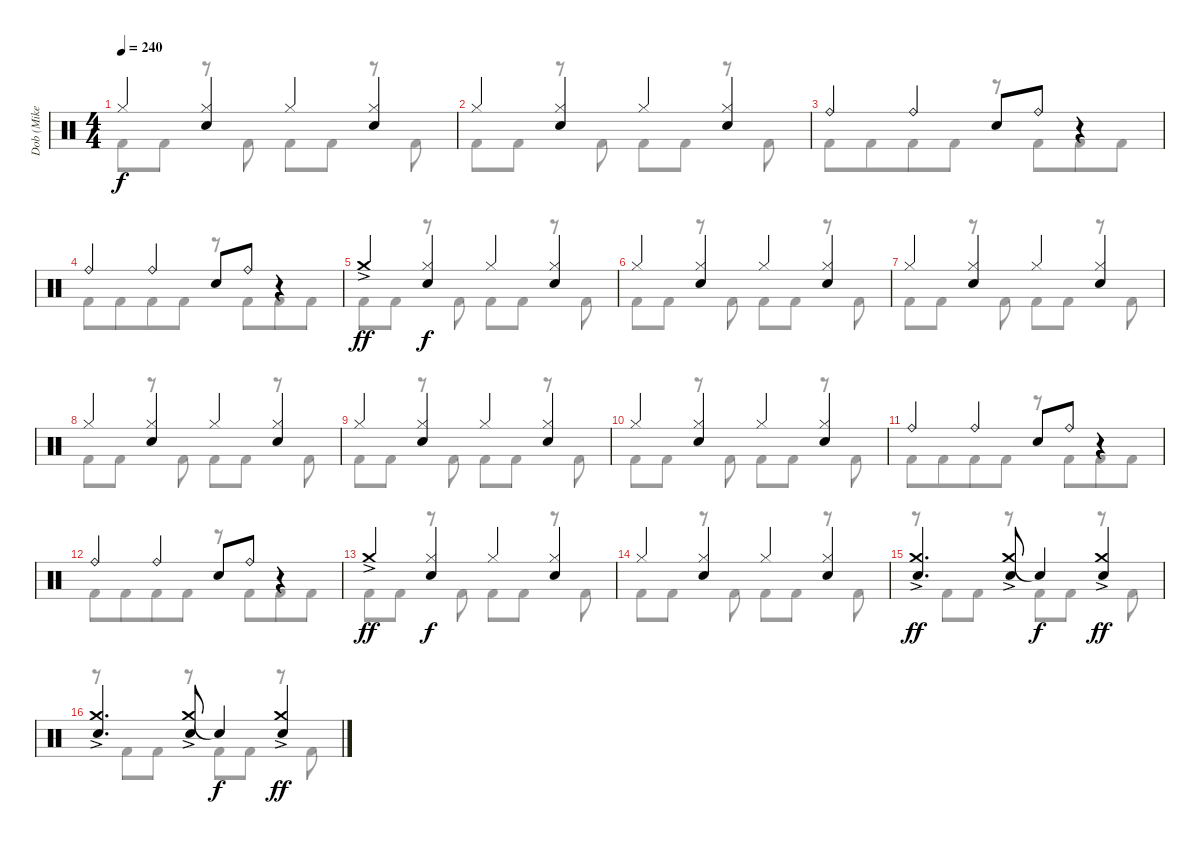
\track ("Dob (Mike Terrana)" "Dob (Mike ") {instrument percussion}
\staff {score}
\articulation defaults
\voice
\ts (4 4)
\tempo 240
\clef neutral
\ks c "Hi-Hat (closed)".4{dy f}
("Hi-Hat (closed)" "Electric Snare (hit)").4 "Hi-Hat (closed)".4 ("Hi-Hat (closed)" "Electric Snare (hit)").4 |
"Hi-Hat (closed)".4 ("Hi-Hat (closed)" "Electric Snare (hit)").4 "Hi-Hat (closed)".4 ("Hi-Hat (closed)" "Electric Snare (hit)").4 |
"Ride (bell)".4 "Ride (bell)".4 "Electric Snare (hit)".8 "Ride (bell)".8 r.4 |
"Ride (bell)".4 "Ride (bell)".4 "Electric Snare (hit)".8 "Ride (bell)".8 r.4 |
"Crash medium (hit)"{ac}.4{dy ff} ("Hi-Hat (closed)" "Electric Snare (hit)").4{dy f} "Hi-Hat (closed)".4 ("Hi-Hat (closed)" "Electric Snare (hit)").4 |
"Hi-Hat (closed)".4 ("Hi-Hat (closed)" "Electric Snare (hit)").4 "Hi-Hat (closed)".4 ("Hi-Hat (closed)" "Electric Snare (hit)").4 |
"Hi-Hat (closed)".4 ("Hi-Hat (closed)" "Electric Snare (hit)").4 "Hi-Hat (closed)".4 ("Hi-Hat (closed)" "Electric Snare (hit)").4 |
"Hi-Hat (closed)".4 ("Hi-Hat (closed)" "Electric Snare (hit)").4 "Hi-Hat (closed)".4 ("Hi-Hat (closed)" "Electric Snare (hit)").4 |
"Hi-Hat (closed)".4 ("Hi-Hat (closed)" "Electric Snare (hit)").4 "Hi-Hat (closed)".4 ("Hi-Hat (closed)" "Electric Snare (hit)").4 |
"Hi-Hat (closed)".4 ("Hi-Hat (closed)" "Electric Snare (hit)").4 "Hi-Hat (closed)".4 ("Hi-Hat (closed)" "Electric Snare (hit)").4 |
"Ride (bell)".4 "Ride (bell)".4 "Electric Snare (hit)".8 "Ride (bell)".8 r.4 |
"Ride (bell)".4 "Ride (bell)".4 "Electric Snare (hit)".8 "Ride (bell)".8 r.4 |
"Crash medium (hit)"{ac}.4{dy ff} ("Hi-Hat (closed)" "Electric Snare (hit)").4{dy f} "Hi-Hat (closed)".4 ("Hi-Hat (closed)" "Electric Snare (hit)").4 |
"Hi-Hat (closed)".4 ("Hi-Hat (closed)" "Electric Snare (hit)").4 "Hi-Hat (closed)".4 ("Hi-Hat (closed)" "Electric Snare (hit)").4 |
("Crash medium (hit)"{ac} "Electric Snare (hit)").4{d dy ff} ("Crash medium (hit)"{ac} "Electric Snare (hit)").8 "Snare (hit)"{t}.4{dy f} ("Crash medium (hit)"{ac} "Electric Snare (hit)").4{dy ff} |
("Crash medium (hit)"{ac} "Electric Snare (hit)").4{d} ("Crash medium (hit)"{ac} "Electric Snare (hit)").8 "Snare (hit)"{t}.4{dy f} ("Crash medium (hit)"{ac} "Electric Snare (hit)").4{dy ff}
\voice
\clef neutral
\ottava regular
\simile none
\ks c "Kick (hit) 2".8{dy f} "Kick (hit) 2".8
r.8 "Kick (hit) 2".8 "Kick (hit) 2".8 "Kick (hit) 2".8 r.8 "Kick (hit) 2".8 |
"Kick (hit) 2".8 "Kick (hit) 2".8 r.8 "Kick (hit) 2".8 "Kick (hit) 2".8 "Kick (hit) 2".8 r.8 "Kick (hit) 2".8 |
"Kick (hit) 2".8 "Kick (hit) 2".8{beam merge} "Kick (hit) 2".8 "Kick (hit) 2".8 r.8 "Kick (hit) 2".8{beam merge} "Kick (hit) 2".8 "Kick (hit) 2".8 |
"Kick (hit) 2".8 "Kick (hit) 2".8{beam merge} "Kick (hit) 2".8 "Kick (hit) 2".8 r.8 "Kick (hit) 2".8{beam merge} "Kick (hit) 2".8 "Kick (hit) 2".8 |
"Kick (hit) 2".8 "Kick (hit) 2".8 r.8 "Kick (hit) 2".8 "Kick (hit) 2".8 "Kick (hit) 2".8 r.8 "Kick (hit) 2".8 |
"Kick (hit) 2".8 "Kick (hit) 2".8 r.8 "Kick (hit) 2".8 "Kick (hit) 2".8 "Kick (hit) 2".8 r.8 "Kick (hit) 2".8 |
"Kick (hit) 2".8 "Kick (hit) 2".8 r.8 "Kick (hit) 2".8 "Kick (hit) 2".8 "Kick (hit) 2".8 r.8 "Kick (hit) 2".8 |
"Kick (hit) 2".8 "Kick (hit) 2".8 r.8 "Kick (hit) 2".8 "Kick (hit) 2".8 "Kick (hit) 2".8 r.8 "Kick (hit) 2".8 |
"Kick (hit) 2".8 "Kick (hit) 2".8 r.8 "Kick (hit) 2".8 "Kick (hit) 2".8 "Kick (hit) 2".8 r.8 "Kick (hit) 2".8 |
"Kick (hit) 2".8 "Kick (hit) 2".8 r.8 "Kick (hit) 2".8 "Kick (hit) 2".8 "Kick (hit) 2".8 r.8 "Kick (hit) 2".8 |
"Kick (hit) 2".8 "Kick (hit) 2".8{beam merge} "Kick (hit) 2".8 "Kick (hit) 2".8 r.8 "Kick (hit) 2".8{beam merge} "Kick (hit) 2".8 "Kick (hit) 2".8 |
"Kick (hit) 2".8 "Kick (hit) 2".8{beam merge} "Kick (hit) 2".8 "Kick (hit) 2".8 r.8 "Kick (hit) 2".8{beam merge} "Kick (hit) 2".8 "Kick (hit) 2".8 |
"Kick (hit) 2".8 "Kick (hit) 2".8 r.8 "Kick (hit) 2".8 "Kick (hit) 2".8 "Kick (hit) 2".8 r.8 "Kick (hit) 2".8 |
"Kick (hit) 2".8 "Kick (hit) 2".8 r.8 "Kick (hit) 2".8 "Kick (hit) 2".8 "Kick (hit) 2".8 r.8 "Kick (hit) 2".8 |
r.8 "Kick (hit) 2".8{beam merge} "Kick (hit) 2".8 r.8 "Kick (hit) 2".8 "Kick (hit) 2".8 r.8 "Kick (hit) 2".8 |
r.8 "Kick (hit) 2".8{beam merge} "Kick (hit) 2".8 r.8 "Kick (hit) 2".8 "Kick (hit) 2".8 r.8 "Kick (hit) 2".8
